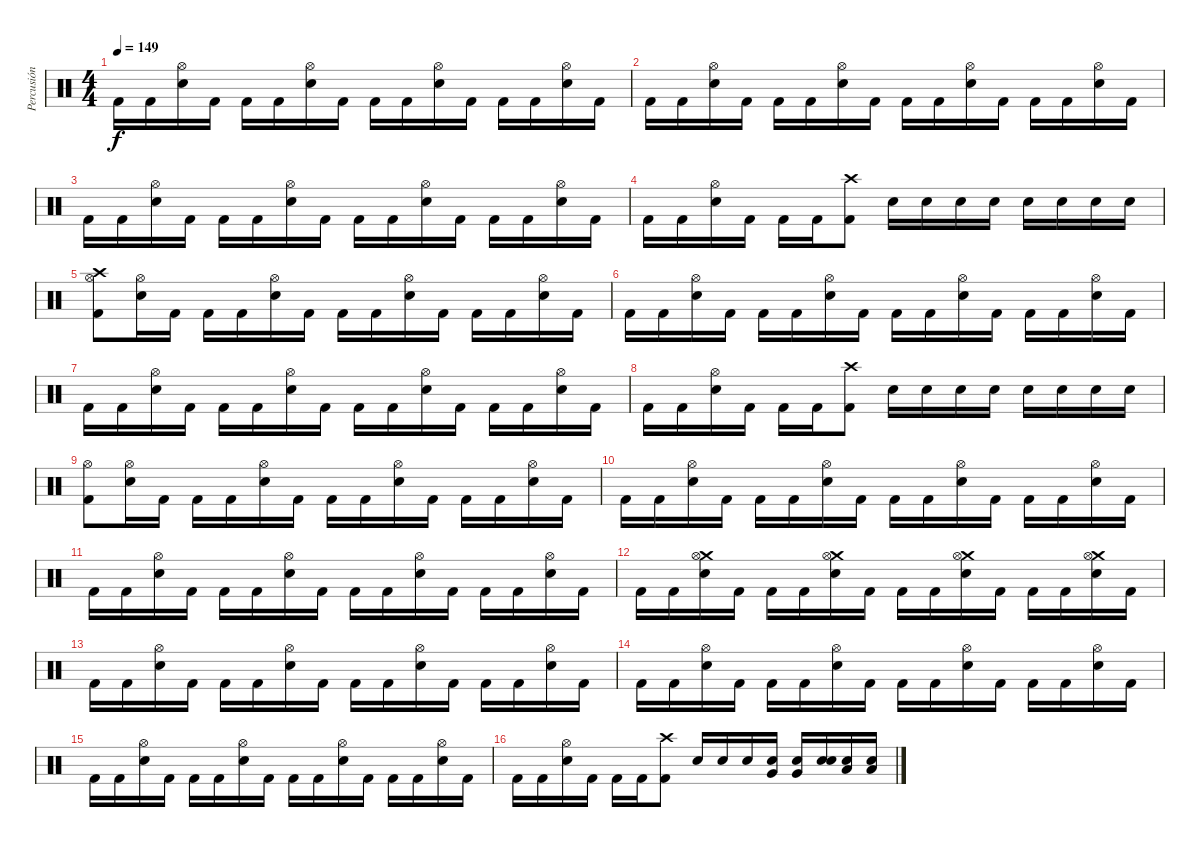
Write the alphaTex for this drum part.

\track ("Percusión" "Percusión") {instrument percussion}
\staff {score}
\articulation defaults
\ts (4 4)
\tempo 149
\clef neutral
\ks c "Kick (hit) 2".16{dy f} "Kick (hit) 2".16
("Hi-Hat (open)" "Snare (hit) 2").16 "Kick (hit) 2".16 "Kick (hit) 2".16 "Kick (hit) 2".16 ("Hi-Hat (open)" "Snare (hit) 2").16 "Kick (hit) 2".16 "Kick (hit) 2".16 "Kick (hit) 2".16 ("Hi-Hat (open)" "Snare (hit) 2").16 "Kick (hit) 2".16 "Kick (hit) 2".16 "Kick (hit) 2".16 ("Hi-Hat (open)" "Snare (hit) 2").16 "Kick (hit) 2".16 |
"Kick (hit) 2".16 "Kick (hit) 2".16 ("Hi-Hat (open)" "Snare (hit) 2").16 "Kick (hit) 2".16 "Kick (hit) 2".16 "Kick (hit) 2".16 ("Hi-Hat (open)" "Snare (hit) 2").16 "Kick (hit) 2".16 "Kick (hit) 2".16 "Kick (hit) 2".16 ("Hi-Hat (open)" "Snare (hit) 2").16 "Kick (hit) 2".16 "Kick (hit) 2".16 "Kick (hit) 2".16 ("Hi-Hat (open)" "Snare (hit) 2").16 "Kick (hit) 2".16 |
"Kick (hit) 2".16 "Kick (hit) 2".16 ("Hi-Hat (open)" "Snare (hit) 2").16 "Kick (hit) 2".16 "Kick (hit) 2".16 "Kick (hit) 2".16 ("Hi-Hat (open)" "Snare (hit) 2").16 "Kick (hit) 2".16 "Kick (hit) 2".16 "Kick (hit) 2".16 ("Hi-Hat (open)" "Snare (hit) 2").16 "Kick (hit) 2".16 "Kick (hit) 2".16 "Kick (hit) 2".16 ("Hi-Hat (open)" "Snare (hit) 2").16 "Kick (hit) 2".16 |
"Kick (hit) 2".16 "Kick (hit) 2".16 ("Hi-Hat (open)" "Snare (hit) 2").16 "Kick (hit) 2".16 "Kick (hit) 2".16 "Kick (hit) 2".16 ("Crash high (hit)" "Kick (hit) 2").8 "Snare (hit) 2".16 "Snare (hit) 2".16 "Snare (hit) 2".16 "Snare (hit) 2".16 "Snare (hit) 2".16 "Snare (hit) 2".16 "Snare (hit) 2".16 "Snare (hit) 2".16 |
("Crash high (hit)" "Hi-Hat (open)" "Kick (hit) 2").8 ("Hi-Hat (open)" "Snare (hit) 2").16 "Kick (hit) 2".16 "Kick (hit) 2".16 "Kick (hit) 2".16 ("Hi-Hat (open)" "Snare (hit) 2").16 "Kick (hit) 2".16 "Kick (hit) 2".16 "Kick (hit) 2".16 ("Hi-Hat (open)" "Snare (hit) 2").16 "Kick (hit) 2".16 "Kick (hit) 2".16 "Kick (hit) 2".16 ("Hi-Hat (open)" "Snare (hit) 2").16 "Kick (hit) 2".16 |
"Kick (hit) 2".16 "Kick (hit) 2".16 ("Hi-Hat (open)" "Snare (hit) 2").16 "Kick (hit) 2".16 "Kick (hit) 2".16 "Kick (hit) 2".16 ("Hi-Hat (open)" "Snare (hit) 2").16 "Kick (hit) 2".16 "Kick (hit) 2".16 "Kick (hit) 2".16 ("Hi-Hat (open)" "Snare (hit) 2").16 "Kick (hit) 2".16 "Kick (hit) 2".16 "Kick (hit) 2".16 ("Hi-Hat (open)" "Snare (hit) 2").16 "Kick (hit) 2".16 |
"Kick (hit) 2".16 "Kick (hit) 2".16 ("Hi-Hat (open)" "Snare (hit) 2").16 "Kick (hit) 2".16 "Kick (hit) 2".16 "Kick (hit) 2".16 ("Hi-Hat (open)" "Snare (hit) 2").16 "Kick (hit) 2".16 "Kick (hit) 2".16 "Kick (hit) 2".16 ("Hi-Hat (open)" "Snare (hit) 2").16 "Kick (hit) 2".16 "Kick (hit) 2".16 "Kick (hit) 2".16 ("Hi-Hat (open)" "Snare (hit) 2").16 "Kick (hit) 2".16 |
"Kick (hit) 2".16 "Kick (hit) 2".16 ("Hi-Hat (open)" "Snare (hit) 2").16 "Kick (hit) 2".16 "Kick (hit) 2".16 "Kick (hit) 2".16 ("Crash high (hit)" "Kick (hit) 2").8 "Snare (hit) 2".16 "Snare (hit) 2".16 "Snare (hit) 2".16 "Snare (hit) 2".16 "Snare (hit) 2".16 "Snare (hit) 2".16 "Snare (hit) 2".16 "Snare (hit) 2".16 |
("Hi-Hat (open)" "Kick (hit) 2").8 ("Hi-Hat (open)" "Snare (hit) 2").16 "Kick (hit) 2".16 "Kick (hit) 2".16 "Kick (hit) 2".16 ("Hi-Hat (open)" "Snare (hit) 2").16 "Kick (hit) 2".16 "Kick (hit) 2".16 "Kick (hit) 2".16 ("Hi-Hat (open)" "Snare (hit) 2").16 "Kick (hit) 2".16 "Kick (hit) 2".16 "Kick (hit) 2".16 ("Hi-Hat (open)" "Snare (hit) 2").16 "Kick (hit) 2".16 |
"Kick (hit) 2".16 "Kick (hit) 2".16 ("Hi-Hat (open)" "Snare (hit) 2").16 "Kick (hit) 2".16 "Kick (hit) 2".16 "Kick (hit) 2".16 ("Hi-Hat (open)" "Snare (hit) 2").16 "Kick (hit) 2".16 "Kick (hit) 2".16 "Kick (hit) 2".16 ("Hi-Hat (open)" "Snare (hit) 2").16 "Kick (hit) 2".16 "Kick (hit) 2".16 "Kick (hit) 2".16 ("Hi-Hat (open)" "Snare (hit) 2").16 "Kick (hit) 2".16 |
"Kick (hit) 2".16 "Kick (hit) 2".16 ("Hi-Hat (open)" "Snare (hit) 2").16 "Kick (hit) 2".16 "Kick (hit) 2".16 "Kick (hit) 2".16 ("Hi-Hat (open)" "Snare (hit) 2").16 "Kick (hit) 2".16 "Kick (hit) 2".16 "Kick (hit) 2".16 ("Hi-Hat (open)" "Snare (hit) 2").16 "Kick (hit) 2".16 "Kick (hit) 2".16 "Kick (hit) 2".16 ("Hi-Hat (open)" "Snare (hit) 2").16 "Kick (hit) 2".16 |
"Kick (hit) 2".16 "Kick (hit) 2".16 ("Crash medium (hit)" "Hi-Hat (open)" "Snare (hit) 2").16 "Kick (hit) 2".16 "Kick (hit) 2".16 "Kick (hit) 2".16 ("Crash medium (hit)" "Hi-Hat (open)" "Snare (hit) 2").16 "Kick (hit) 2".16 "Kick (hit) 2".16 "Kick (hit) 2".16 ("Crash medium (hit)" "Hi-Hat (open)" "Snare (hit) 2").16 "Kick (hit) 2".16 "Kick (hit) 2".16 "Kick (hit) 2".16 ("Crash medium (hit)" "Hi-Hat (open)" "Snare (hit) 2").16 "Kick (hit) 2".16 |
"Kick (hit) 2".16 "Kick (hit) 2".16 ("Hi-Hat (open)" "Snare (hit) 2").16 "Kick (hit) 2".16 "Kick (hit) 2".16 "Kick (hit) 2".16 ("Hi-Hat (open)" "Snare (hit) 2").16 "Kick (hit) 2".16 "Kick (hit) 2".16 "Kick (hit) 2".16 ("Hi-Hat (open)" "Snare (hit) 2").16 "Kick (hit) 2".16 "Kick (hit) 2".16 "Kick (hit) 2".16 ("Hi-Hat (open)" "Snare (hit) 2").16 "Kick (hit) 2".16 |
"Kick (hit) 2".16 "Kick (hit) 2".16 ("Hi-Hat (open)" "Snare (hit) 2").16 "Kick (hit) 2".16 "Kick (hit) 2".16 "Kick (hit) 2".16 ("Hi-Hat (open)" "Snare (hit) 2").16 "Kick (hit) 2".16 "Kick (hit) 2".16 "Kick (hit) 2".16 ("Hi-Hat (open)" "Snare (hit) 2").16 "Kick (hit) 2".16 "Kick (hit) 2".16 "Kick (hit) 2".16 ("Hi-Hat (open)" "Snare (hit) 2").16 "Kick (hit) 2".16 |
"Kick (hit) 2".16 "Kick (hit) 2".16 ("Hi-Hat (open)" "Snare (hit) 2").16 "Kick (hit) 2".16 "Kick (hit) 2".16 "Kick (hit) 2".16 ("Hi-Hat (open)" "Snare (hit) 2").16 "Kick (hit) 2".16 "Kick (hit) 2".16 "Kick (hit) 2".16 ("Hi-Hat (open)" "Snare (hit) 2").16 "Kick (hit) 2".16 "Kick (hit) 2".16 "Kick (hit) 2".16 ("Hi-Hat (open)" "Snare (hit) 2").16 "Kick (hit) 2".16 |
"Kick (hit) 2".16 "Kick (hit) 2".16 ("Hi-Hat (open)" "Snare (hit) 2").16 "Kick (hit) 2".16 "Kick (hit) 2".16 "Kick (hit) 2".16 ("Crash high (hit)" "Kick (hit) 2").8 "Snare (hit) 2".16 "Snare (hit) 2".16 "Snare (hit) 2".16 ("Very Low Tom (hit)" "Snare (hit) 2").16 ("Very Low Tom (hit)" "Snare (hit) 2").16 ("Metronome (bell)" "Snare (hit) 2").16 ("Low Floor Tom (hit)" "Snare (hit) 2").16 ("Low Floor Tom (hit)" "Snare (hit) 2").16
